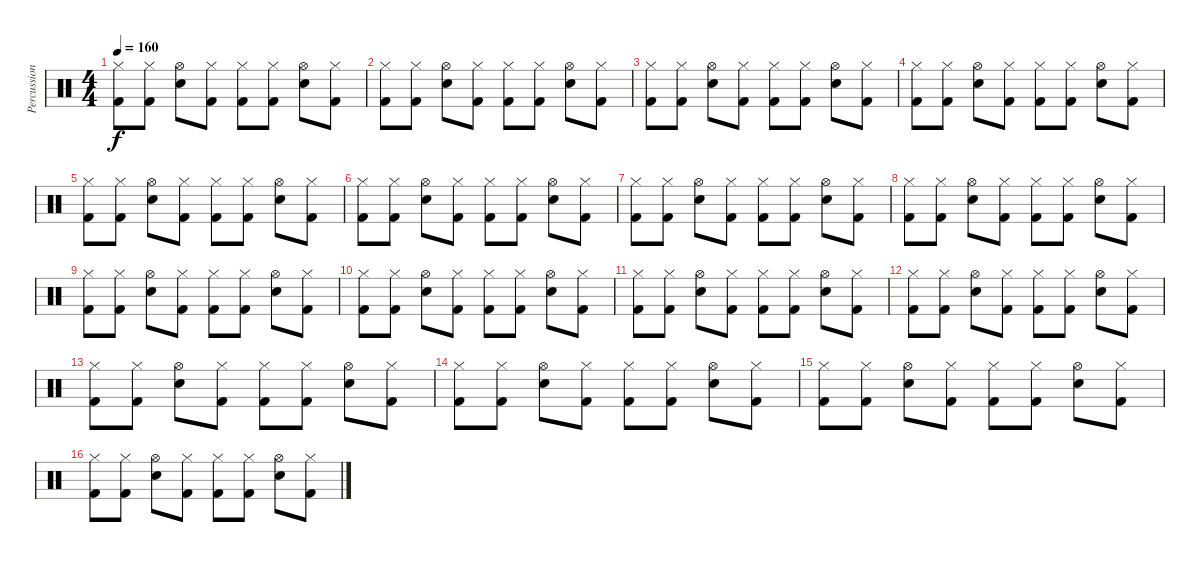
\track ("Percussion" "Percussion") {instrument percussion}
\staff {score}
\articulation defaults
\ts (4 4)
\tempo 160
\clef neutral
\ks c
("Hi-Hat (closed)" "Kick (hit) 2").8{dy f} ("Hi-Hat (closed)" "Kick (hit) 2").8 ("Hi-Hat (open)" "Snare (hit) 2").8 ("Hi-Hat (closed)" "Kick (hit) 2").8 ("Hi-Hat (closed)" "Kick (hit) 2").8 ("Hi-Hat (closed)" "Kick (hit) 2").8 ("Hi-Hat (open)" "Snare (hit) 2").8 ("Hi-Hat (closed)" "Kick (hit) 2").8 |
("Hi-Hat (closed)" "Kick (hit) 2").8 ("Hi-Hat (closed)" "Kick (hit) 2").8 ("Hi-Hat (open)" "Snare (hit) 2").8 ("Hi-Hat (closed)" "Kick (hit) 2").8 ("Hi-Hat (closed)" "Kick (hit) 2").8 ("Hi-Hat (closed)" "Kick (hit) 2").8 ("Hi-Hat (open)" "Snare (hit) 2").8 ("Hi-Hat (closed)" "Kick (hit) 2").8 |
("Hi-Hat (closed)" "Kick (hit) 2").8 ("Hi-Hat (closed)" "Kick (hit) 2").8 ("Hi-Hat (open)" "Snare (hit) 2").8 ("Hi-Hat (closed)" "Kick (hit) 2").8 ("Hi-Hat (closed)" "Kick (hit) 2").8 ("Hi-Hat (closed)" "Kick (hit) 2").8 ("Hi-Hat (open)" "Snare (hit) 2").8 ("Hi-Hat (closed)" "Kick (hit) 2").8 |
("Hi-Hat (closed)" "Kick (hit) 2").8 ("Hi-Hat (closed)" "Kick (hit) 2").8 ("Hi-Hat (open)" "Snare (hit) 2").8 ("Hi-Hat (closed)" "Kick (hit) 2").8 ("Hi-Hat (closed)" "Kick (hit) 2").8 ("Hi-Hat (closed)" "Kick (hit) 2").8 ("Hi-Hat (open)" "Snare (hit) 2").8 ("Hi-Hat (closed)" "Kick (hit) 2").8 |
("Hi-Hat (closed)" "Kick (hit) 2").8 ("Hi-Hat (closed)" "Kick (hit) 2").8 ("Hi-Hat (open)" "Snare (hit) 2").8 ("Hi-Hat (closed)" "Kick (hit) 2").8 ("Hi-Hat (closed)" "Kick (hit) 2").8 ("Hi-Hat (closed)" "Kick (hit) 2").8 ("Hi-Hat (open)" "Snare (hit) 2").8 ("Hi-Hat (closed)" "Kick (hit) 2").8 |
("Hi-Hat (closed)" "Kick (hit) 2").8 ("Hi-Hat (closed)" "Kick (hit) 2").8 ("Hi-Hat (open)" "Snare (hit) 2").8 ("Hi-Hat (closed)" "Kick (hit) 2").8 ("Hi-Hat (closed)" "Kick (hit) 2").8 ("Hi-Hat (closed)" "Kick (hit) 2").8 ("Hi-Hat (open)" "Snare (hit) 2").8 ("Hi-Hat (closed)" "Kick (hit) 2").8 |
("Hi-Hat (closed)" "Kick (hit) 2").8 ("Hi-Hat (closed)" "Kick (hit) 2").8 ("Hi-Hat (open)" "Snare (hit) 2").8 ("Hi-Hat (closed)" "Kick (hit) 2").8 ("Hi-Hat (closed)" "Kick (hit) 2").8 ("Hi-Hat (closed)" "Kick (hit) 2").8 ("Hi-Hat (open)" "Snare (hit) 2").8 ("Hi-Hat (closed)" "Kick (hit) 2").8 |
("Hi-Hat (closed)" "Kick (hit) 2").8 ("Hi-Hat (closed)" "Kick (hit) 2").8 ("Hi-Hat (open)" "Snare (hit) 2").8 ("Hi-Hat (closed)" "Kick (hit) 2").8 ("Hi-Hat (closed)" "Kick (hit) 2").8 ("Hi-Hat (closed)" "Kick (hit) 2").8 ("Hi-Hat (open)" "Snare (hit) 2").8 ("Hi-Hat (closed)" "Kick (hit) 2").8 |
("Hi-Hat (closed)" "Kick (hit) 2").8 ("Hi-Hat (closed)" "Kick (hit) 2").8 ("Hi-Hat (open)" "Snare (hit) 2").8 ("Hi-Hat (closed)" "Kick (hit) 2").8 ("Hi-Hat (closed)" "Kick (hit) 2").8 ("Hi-Hat (closed)" "Kick (hit) 2").8 ("Hi-Hat (open)" "Snare (hit) 2").8 ("Hi-Hat (closed)" "Kick (hit) 2").8 |
("Hi-Hat (closed)" "Kick (hit) 2").8 ("Hi-Hat (closed)" "Kick (hit) 2").8 ("Hi-Hat (open)" "Snare (hit) 2").8 ("Hi-Hat (closed)" "Kick (hit) 2").8 ("Hi-Hat (closed)" "Kick (hit) 2").8 ("Hi-Hat (closed)" "Kick (hit) 2").8 ("Hi-Hat (open)" "Snare (hit) 2").8 ("Hi-Hat (closed)" "Kick (hit) 2").8 |
("Hi-Hat (closed)" "Kick (hit) 2").8 ("Hi-Hat (closed)" "Kick (hit) 2").8 ("Hi-Hat (open)" "Snare (hit) 2").8 ("Hi-Hat (closed)" "Kick (hit) 2").8 ("Hi-Hat (closed)" "Kick (hit) 2").8 ("Hi-Hat (closed)" "Kick (hit) 2").8 ("Hi-Hat (open)" "Snare (hit) 2").8 ("Hi-Hat (closed)" "Kick (hit) 2").8 |
("Hi-Hat (closed)" "Kick (hit) 2").8 ("Hi-Hat (closed)" "Kick (hit) 2").8 ("Hi-Hat (open)" "Snare (hit) 2").8 ("Hi-Hat (closed)" "Kick (hit) 2").8 ("Hi-Hat (closed)" "Kick (hit) 2").8 ("Hi-Hat (closed)" "Kick (hit) 2").8 ("Hi-Hat (open)" "Snare (hit) 2").8 ("Hi-Hat (closed)" "Kick (hit) 2").8 |
("Hi-Hat (closed)" "Kick (hit) 2").8 ("Hi-Hat (closed)" "Kick (hit) 2").8 ("Hi-Hat (open)" "Snare (hit) 2").8 ("Hi-Hat (closed)" "Kick (hit) 2").8 ("Hi-Hat (closed)" "Kick (hit) 2").8 ("Hi-Hat (closed)" "Kick (hit) 2").8 ("Hi-Hat (open)" "Snare (hit) 2").8 ("Hi-Hat (closed)" "Kick (hit) 2").8 |
("Hi-Hat (closed)" "Kick (hit) 2").8 ("Hi-Hat (closed)" "Kick (hit) 2").8 ("Hi-Hat (open)" "Snare (hit) 2").8 ("Hi-Hat (closed)" "Kick (hit) 2").8 ("Hi-Hat (closed)" "Kick (hit) 2").8 ("Hi-Hat (closed)" "Kick (hit) 2").8 ("Hi-Hat (open)" "Snare (hit) 2").8 ("Hi-Hat (closed)" "Kick (hit) 2").8 |
("Hi-Hat (closed)" "Kick (hit) 2").8 ("Hi-Hat (closed)" "Kick (hit) 2").8 ("Hi-Hat (open)" "Snare (hit) 2").8 ("Hi-Hat (closed)" "Kick (hit) 2").8 ("Hi-Hat (closed)" "Kick (hit) 2").8 ("Hi-Hat (closed)" "Kick (hit) 2").8 ("Hi-Hat (open)" "Snare (hit) 2").8 ("Hi-Hat (closed)" "Kick (hit) 2").8 |
("Hi-Hat (closed)" "Kick (hit) 2").8 ("Hi-Hat (closed)" "Kick (hit) 2").8 ("Hi-Hat (open)" "Snare (hit) 2").8 ("Hi-Hat (closed)" "Kick (hit) 2").8 ("Hi-Hat (closed)" "Kick (hit) 2").8 ("Hi-Hat (closed)" "Kick (hit) 2").8 ("Hi-Hat (open)" "Snare (hit) 2").8 ("Hi-Hat (closed)" "Kick (hit) 2").8
